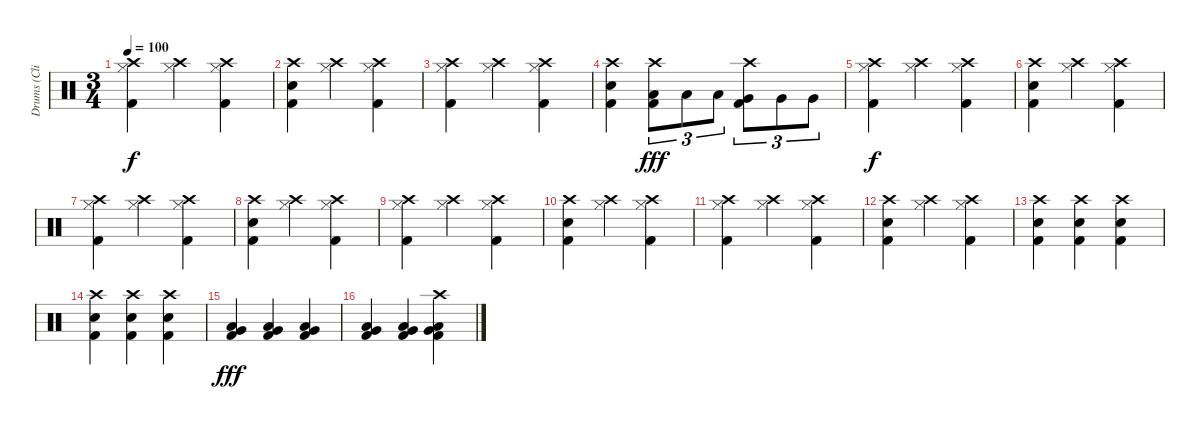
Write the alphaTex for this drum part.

\track ("Drums (Clive Bunker)" "Drums (Cli") {instrument percussion}
\staff {score}
\articulation defaults
\ts (3 4)
\tempo 100
\clef neutral
\ks c
("Crash high (hit)" "Hi-Hat (closed)" "Kick (hit) 2").4{dy f} ("Crash high (hit)" "Hi-Hat (closed)").4 ("Crash high (hit)" "Hi-Hat (closed)" "Kick (hit) 2").4 |
("Crash high (hit)" "Snare (hit) 2" "Kick (hit) 2").4 ("Crash high (hit)" "Hi-Hat (closed)").4 ("Crash high (hit)" "Hi-Hat (closed)" "Kick (hit) 2").4 |
("Crash high (hit)" "Hi-Hat (closed)" "Kick (hit) 2").4 ("Crash high (hit)" "Hi-Hat (closed)").4 ("Crash high (hit)" "Hi-Hat (closed)" "Kick (hit) 2").4 |
("Crash high (hit)" "Snare (hit) 2" "Kick (hit) 2").4 ("Crash high (hit)" "Low Tom (hit)" "Kick (hit) 2").8{tu (3 2) dy fff} "Low Tom (hit)".8{tu (3 2)} "Low Tom (hit)".8{tu (3 2)} ("Crash high (hit)" "Very Low Tom (hit)" "Kick (hit) 2").8{tu (3 2)} "Very Low Tom (hit)".8{tu (3 2)} "Very Low Tom (hit)".8{tu (3 2)} |
("Crash high (hit)" "Hi-Hat (closed)" "Kick (hit) 2").4{dy f} ("Crash high (hit)" "Hi-Hat (closed)").4 ("Crash high (hit)" "Hi-Hat (closed)" "Kick (hit) 2").4 |
("Crash high (hit)" "Snare (hit) 2" "Kick (hit) 2").4 ("Crash high (hit)" "Hi-Hat (closed)").4 ("Crash high (hit)" "Hi-Hat (closed)" "Kick (hit) 2").4 |
("Crash high (hit)" "Hi-Hat (closed)" "Kick (hit) 2").4 ("Crash high (hit)" "Hi-Hat (closed)").4 ("Crash high (hit)" "Hi-Hat (closed)" "Kick (hit) 2").4 |
("Crash high (hit)" "Snare (hit) 2" "Kick (hit) 2").4 ("Crash high (hit)" "Hi-Hat (closed)").4 ("Crash high (hit)" "Hi-Hat (closed)" "Kick (hit) 2").4 |
("Crash high (hit)" "Hi-Hat (closed)" "Kick (hit) 2").4 ("Crash high (hit)" "Hi-Hat (closed)").4 ("Crash high (hit)" "Hi-Hat (closed)" "Kick (hit) 2").4 |
("Crash high (hit)" "Snare (hit) 2" "Kick (hit) 2").4 ("Crash high (hit)" "Hi-Hat (closed)").4 ("Crash high (hit)" "Hi-Hat (closed)" "Kick (hit) 2").4 |
("Crash high (hit)" "Hi-Hat (closed)" "Kick (hit) 2").4 ("Crash high (hit)" "Hi-Hat (closed)").4 ("Crash high (hit)" "Hi-Hat (closed)" "Kick (hit) 2").4 |
("Crash high (hit)" "Snare (hit) 2" "Kick (hit) 2").4 ("Crash high (hit)" "Hi-Hat (closed)").4 ("Crash high (hit)" "Hi-Hat (closed)" "Kick (hit) 2").4 |
("Crash high (hit)" "Snare (hit) 2" "Kick (hit) 2").4 ("Crash high (hit)" "Snare (hit) 2" "Kick (hit) 2").4 ("Crash high (hit)" "Snare (hit) 2" "Kick (hit) 2").4 |
("Crash high (hit)" "Snare (hit) 2" "Kick (hit) 2").4 ("Crash high (hit)" "Snare (hit) 2" "Kick (hit) 2").4 ("Crash high (hit)" "Snare (hit) 2" "Kick (hit) 2").4 |
("Low Tom (hit)" "Very Low Tom (hit)" "Kick (hit) 2").4{dy fff} ("Low Tom (hit)" "Very Low Tom (hit)" "Kick (hit) 2").4 ("Low Tom (hit)" "Very Low Tom (hit)" "Kick (hit) 2").4 |
("Low Tom (hit)" "Very Low Tom (hit)" "Kick (hit) 2").4 ("Low Tom (hit)" "Very Low Tom (hit)" "Kick (hit) 2").4 ("Crash high (hit)" "Low Tom (hit)" "Very Low Tom (hit)" "Kick (hit) 2").4
